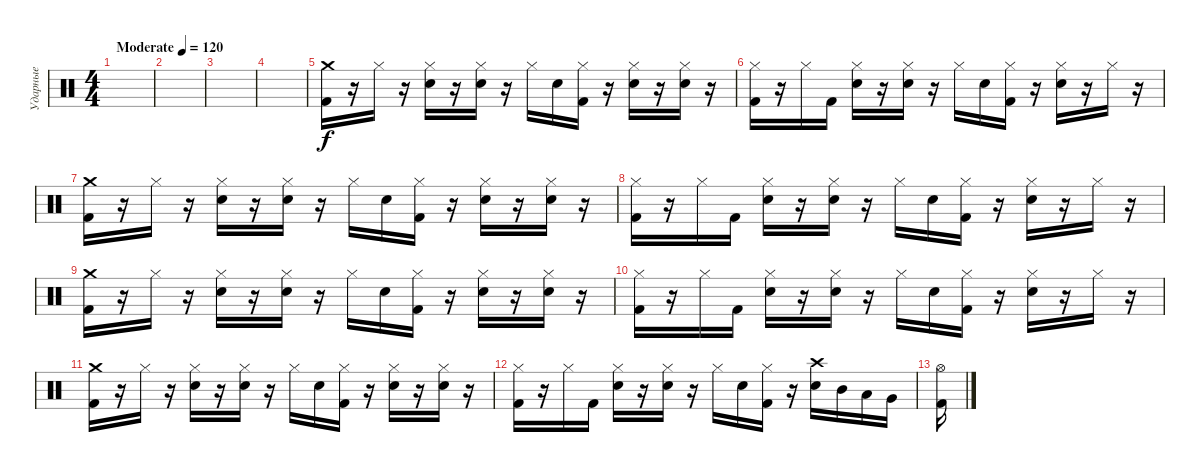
\track ("Ударные" "Ударные") {instrument percussion}
\staff {score}
\articulation defaults
\ts (4 4)
\tempo (120 "Moderate")
\clef neutral
\ks c
|
|
|
|
("Crash medium (hit)" "Kick (hit) 2").16 r.16 "Hi-Hat (closed)".16 r.16 ("Hi-Hat (closed)" "Snare (hit) 2").16 r.16 ("Hi-Hat (closed)" "Snare (hit) 2").16 r.16 "Hi-Hat (closed)".16 "Snare (hit) 2".16 ("Hi-Hat (closed)" "Kick (hit) 2").16 r.16 ("Hi-Hat (closed)" "Snare (hit) 2").16 r.16 ("Hi-Hat (closed)" "Snare (hit) 2").16 r.16 |
("Hi-Hat (closed)" "Kick (hit) 2").16 r.16 "Hi-Hat (closed)".16 "Kick (hit) 2".16 ("Hi-Hat (closed)" "Snare (hit) 2").16 r.16 ("Hi-Hat (closed)" "Snare (hit) 2").16 r.16 "Hi-Hat (closed)".16 "Snare (hit) 2".16 ("Hi-Hat (closed)" "Kick (hit) 2").16 r.16 ("Hi-Hat (closed)" "Snare (hit) 2").16 r.16 "Hi-Hat (closed)".16 r.16 |
("Crash medium (hit)" "Kick (hit) 2").16 r.16 "Hi-Hat (closed)".16 r.16 ("Hi-Hat (closed)" "Snare (hit) 2").16 r.16 ("Hi-Hat (closed)" "Snare (hit) 2").16 r.16 "Hi-Hat (closed)".16 "Snare (hit) 2".16 ("Hi-Hat (closed)" "Kick (hit) 2").16 r.16 ("Hi-Hat (closed)" "Snare (hit) 2").16 r.16 ("Hi-Hat (closed)" "Snare (hit) 2").16 r.16 |
("Hi-Hat (closed)" "Kick (hit) 2").16 r.16 "Hi-Hat (closed)".16 "Kick (hit) 2".16 ("Hi-Hat (closed)" "Snare (hit) 2").16 r.16 ("Hi-Hat (closed)" "Snare (hit) 2").16 r.16 "Hi-Hat (closed)".16 "Snare (hit) 2".16 ("Hi-Hat (closed)" "Kick (hit) 2").16 r.16 ("Hi-Hat (closed)" "Snare (hit) 2").16 r.16 "Hi-Hat (closed)".16 r.16 |
("Crash medium (hit)" "Kick (hit) 2").16 r.16 "Hi-Hat (closed)".16 r.16 ("Hi-Hat (closed)" "Snare (hit) 2").16 r.16 ("Hi-Hat (closed)" "Snare (hit) 2").16 r.16 "Hi-Hat (closed)".16 "Snare (hit) 2".16 ("Hi-Hat (closed)" "Kick (hit) 2").16 r.16 ("Hi-Hat (closed)" "Snare (hit) 2").16 r.16 ("Hi-Hat (closed)" "Snare (hit) 2").16 r.16 |
("Hi-Hat (closed)" "Kick (hit) 2").16 r.16 "Hi-Hat (closed)".16 "Kick (hit) 2".16 ("Hi-Hat (closed)" "Snare (hit) 2").16 r.16 ("Hi-Hat (closed)" "Snare (hit) 2").16 r.16 "Hi-Hat (closed)".16 "Snare (hit) 2".16 ("Hi-Hat (closed)" "Kick (hit) 2").16 r.16 ("Hi-Hat (closed)" "Snare (hit) 2").16 r.16 "Hi-Hat (closed)".16 r.16 |
("Crash medium (hit)" "Kick (hit) 2").16 r.16 "Hi-Hat (closed)".16 r.16 ("Hi-Hat (closed)" "Snare (hit) 2").16 r.16 ("Hi-Hat (closed)" "Snare (hit) 2").16 r.16 "Hi-Hat (closed)".16 "Snare (hit) 2".16 ("Hi-Hat (closed)" "Kick (hit) 2").16 r.16 ("Hi-Hat (closed)" "Snare (hit) 2").16 r.16 ("Hi-Hat (closed)" "Snare (hit) 2").16 r.16 |
("Hi-Hat (closed)" "Kick (hit) 2").16 r.16 "Hi-Hat (closed)".16 "Kick (hit) 2".16 ("Hi-Hat (closed)" "Snare (hit) 2").16 r.16 ("Hi-Hat (closed)" "Snare (hit) 2").16 r.16 "Hi-Hat (closed)".16 "Snare (hit) 2".16 ("Hi-Hat (closed)" "Kick (hit) 2").16 r.16 ("Crash high (hit)" "Snare (hit) 2").16 "Mid Tom (hit)".16 "Low Tom (hit)".16 "Very Low Tom (hit)".16 |
("Hi-Hat (open)" "Kick (hit) 2").16
